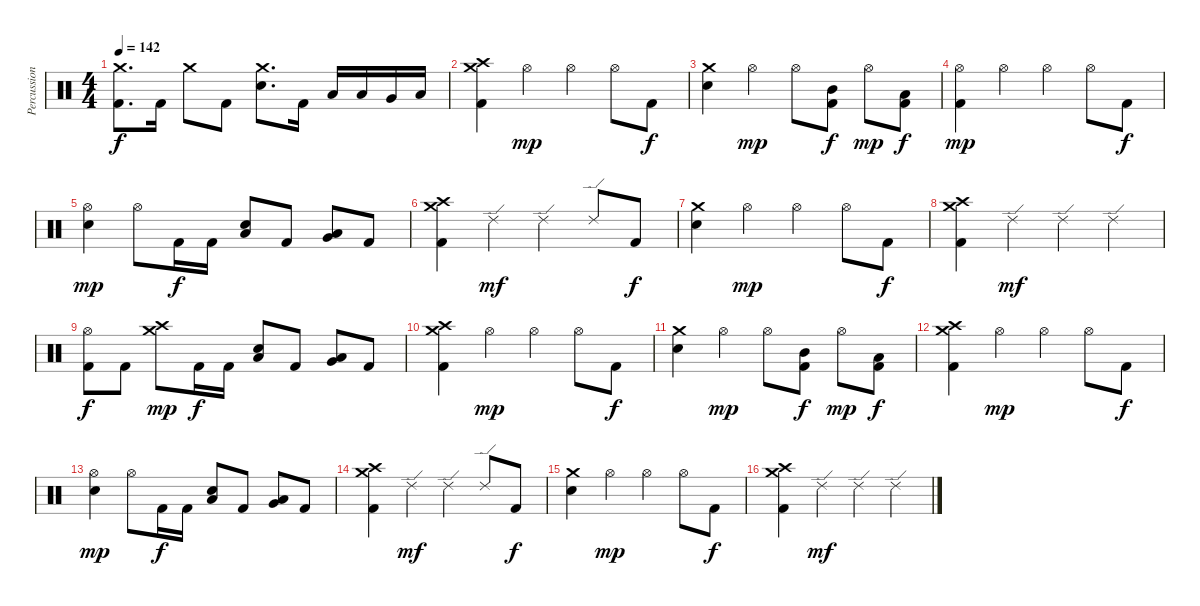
\track ("Percussion" "Percussion") {instrument percussion}
\staff {score}
\articulation defaults
\ts (4 4)
\tempo 142
\clef neutral
\ks c
("Crash medium (hit)" "Kick (hit) 2").8{d dy f} "Kick (hit) 2".16 "Crash medium (hit)".8 "Kick (hit) 2".8 ("Crash medium (hit)" "Electric Snare (hit)").8{d} "Kick (hit) 2".16 "Low Tom (hit)".16 "Low Tom (hit)".16 "Very Low Tom (hit)".16 "Low Floor Tom (hit)".16 |
("Crash medium (hit)" "Crash high (hit)" "Kick (hit) 2").4 "Hi-Hat (open)".4{dy mp} "Hi-Hat (open)".4 "Hi-Hat (open)".8 "Kick (hit) 2".8{dy f} |
("Crash medium (hit)" "Electric Snare (hit)").4 "Hi-Hat (open)".4{dy mp} "Hi-Hat (open)".8 ("Mid Tom (hit)" "Kick (hit) 2").8{dy f} "Hi-Hat (open)".8{dy mp} ("Low Tom (hit)" "Kick (hit) 2").8{dy f} |
("Hi-Hat (open)" "Kick (hit) 2").4{dy mp} "Hi-Hat (open)".4 "Hi-Hat (open)".4 "Hi-Hat (open)".8 "Kick (hit) 2".8{dy f} |
("Hi-Hat (open)" "Electric Snare (hit)").4{dy mp} "Hi-Hat (open)".8 "Kick (hit) 2".16{dy f} "Kick (hit) 2".16 ("Low Tom (hit)" "Electric Snare (hit)").8 "Kick (hit) 2".8 ("Low Floor Tom (hit)" "Very Low Tom (hit)").8 "Kick (hit) 2".8 |
("Crash medium (hit)" "Crash high (hit)" "Kick (hit) 2").4 "Ride (edge) 2".4{dy mf} "Ride (edge) 2".4 "Ride (edge) 2".8 "Kick (hit) 2".8{dy f} |
("Crash medium (hit)" "Electric Snare (hit)").4 "Hi-Hat (open)".4{dy mp} "Hi-Hat (open)".4 "Hi-Hat (open)".8 "Kick (hit) 2".8{dy f} |
("Crash medium (hit)" "Crash high (hit)" "Kick (hit) 2").4 "Ride (edge) 2".4{dy mf} "Ride (edge) 2".4 "Ride (edge) 2".4 |
("Hi-Hat (open)" "Kick (hit) 2").8{dy f} "Kick (hit) 2".8 ("Crash high (hit)" "Crash medium (hit)").8{dy mp} "Kick (hit) 2".16{dy f} "Kick (hit) 2".16 ("Low Tom (hit)" "Electric Snare (hit)").8 "Kick (hit) 2".8 ("Low Floor Tom (hit)" "Very Low Tom (hit)").8 "Kick (hit) 2".8 |
("Crash medium (hit)" "Crash high (hit)" "Kick (hit) 2").4 "Hi-Hat (open)".4{dy mp} "Hi-Hat (open)".4 "Hi-Hat (open)".8 "Kick (hit) 2".8{dy f} |
("Crash medium (hit)" "Electric Snare (hit)").4 "Hi-Hat (open)".4{dy mp} "Hi-Hat (open)".8 ("Mid Tom (hit)" "Kick (hit) 2").8{dy f} "Hi-Hat (open)".8{dy mp} ("Low Tom (hit)" "Kick (hit) 2").8{dy f} |
("Crash medium (hit)" "Crash high (hit)" "Kick (hit) 2").4 "Hi-Hat (open)".4{dy mp} "Hi-Hat (open)".4 "Hi-Hat (open)".8 "Kick (hit) 2".8{dy f} |
("Hi-Hat (open)" "Electric Snare (hit)").4{dy mp} "Hi-Hat (open)".8 "Kick (hit) 2".16{dy f} "Kick (hit) 2".16 ("Low Tom (hit)" "Electric Snare (hit)").8 "Kick (hit) 2".8 ("Low Floor Tom (hit)" "Very Low Tom (hit)").8 "Kick (hit) 2".8 |
("Crash medium (hit)" "Crash high (hit)" "Kick (hit) 2").4 "Ride (edge) 2".4{dy mf} "Ride (edge) 2".4 "Ride (edge) 2".8 "Kick (hit) 2".8{dy f} |
("Crash medium (hit)" "Electric Snare (hit)").4 "Hi-Hat (open)".4{dy mp} "Hi-Hat (open)".4 "Hi-Hat (open)".8 "Kick (hit) 2".8{dy f} |
("Crash medium (hit)" "Crash high (hit)" "Kick (hit) 2").4 "Ride (edge) 2".4{dy mf} "Ride (edge) 2".4 "Ride (edge) 2".4
